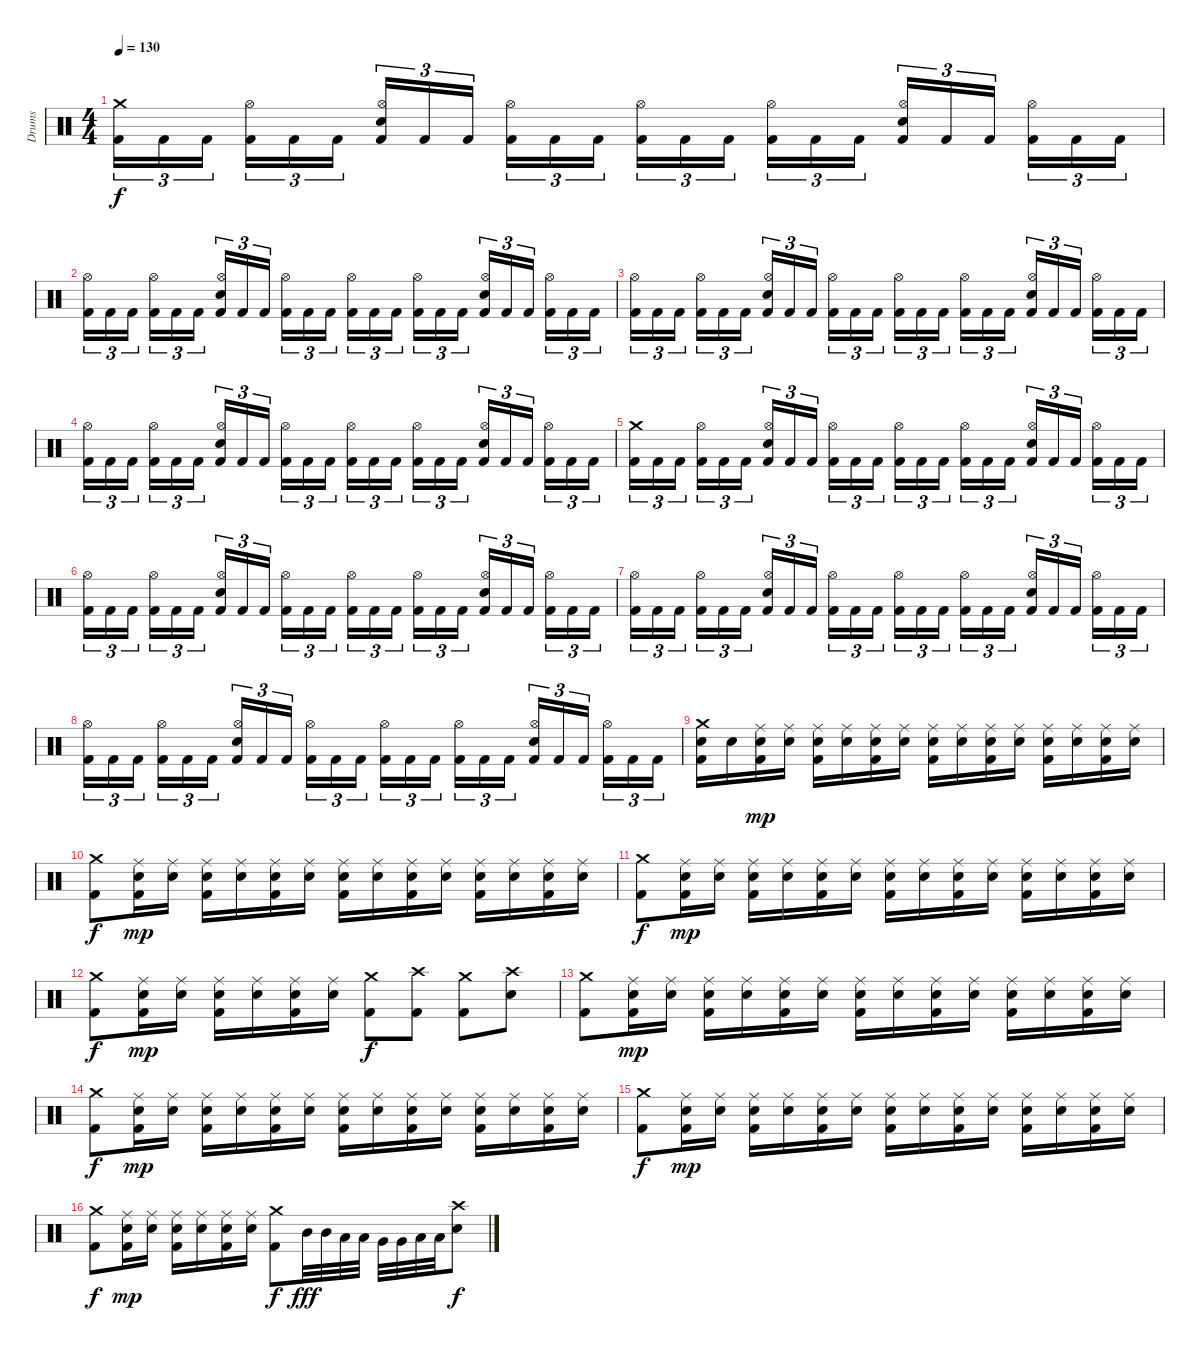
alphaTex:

\track ("Drums" "Drums") {instrument percussion}
\staff {score}
\articulation defaults
\ts (4 4)
\tempo 130
\clef neutral
\ks c
("Kick (hit) 2" "Crash medium (hit)").16{tu (3 2) dy f} "Kick (hit) 2".16{tu (3 2)} "Kick (hit) 2".16{tu (3 2) beam splitsecondary} ("Kick (hit) 2" "Hi-Hat (open)").16{tu (3 2)} "Kick (hit) 2".16{tu (3 2)} "Kick (hit) 2".16{tu (3 2)} ("Kick (hit) 2" "Electric Snare (hit)" "Hi-Hat (open)").16{tu (3 2)} "Kick (hit) 2".16{tu (3 2)} "Kick (hit) 2".16{tu (3 2) beam splitsecondary} ("Kick (hit) 2" "Hi-Hat (open)").16{tu (3 2)} "Kick (hit) 2".16{tu (3 2)} "Kick (hit) 2".16{tu (3 2)} ("Kick (hit) 2" "Hi-Hat (open)").16{tu (3 2)} "Kick (hit) 2".16{tu (3 2)} "Kick (hit) 2".16{tu (3 2) beam splitsecondary} ("Kick (hit) 2" "Hi-Hat (open)").16{tu (3 2)} "Kick (hit) 2".16{tu (3 2)} "Kick (hit) 2".16{tu (3 2)} ("Kick (hit) 2" "Electric Snare (hit)" "Hi-Hat (open)").16{tu (3 2)} "Kick (hit) 2".16{tu (3 2)} "Kick (hit) 2".16{tu (3 2) beam splitsecondary} ("Kick (hit) 2" "Hi-Hat (open)").16{tu (3 2)} "Kick (hit) 2".16{tu (3 2)} "Kick (hit) 2".16{tu (3 2)} |
("Kick (hit) 2" "Hi-Hat (open)").16{tu (3 2)} "Kick (hit) 2".16{tu (3 2)} "Kick (hit) 2".16{tu (3 2) beam splitsecondary} ("Kick (hit) 2" "Hi-Hat (open)").16{tu (3 2)} "Kick (hit) 2".16{tu (3 2)} "Kick (hit) 2".16{tu (3 2)} ("Kick (hit) 2" "Electric Snare (hit)" "Hi-Hat (open)").16{tu (3 2)} "Kick (hit) 2".16{tu (3 2)} "Kick (hit) 2".16{tu (3 2) beam splitsecondary} ("Kick (hit) 2" "Hi-Hat (open)").16{tu (3 2)} "Kick (hit) 2".16{tu (3 2)} "Kick (hit) 2".16{tu (3 2)} ("Kick (hit) 2" "Hi-Hat (open)").16{tu (3 2)} "Kick (hit) 2".16{tu (3 2)} "Kick (hit) 2".16{tu (3 2) beam splitsecondary} ("Kick (hit) 2" "Hi-Hat (open)").16{tu (3 2)} "Kick (hit) 2".16{tu (3 2)} "Kick (hit) 2".16{tu (3 2)} ("Kick (hit) 2" "Electric Snare (hit)" "Hi-Hat (open)").16{tu (3 2)} "Kick (hit) 2".16{tu (3 2)} "Kick (hit) 2".16{tu (3 2) beam splitsecondary} ("Kick (hit) 2" "Hi-Hat (open)").16{tu (3 2)} "Kick (hit) 2".16{tu (3 2)} "Kick (hit) 2".16{tu (3 2)} |
("Kick (hit) 2" "Hi-Hat (open)").16{tu (3 2)} "Kick (hit) 2".16{tu (3 2)} "Kick (hit) 2".16{tu (3 2) beam splitsecondary} ("Kick (hit) 2" "Hi-Hat (open)").16{tu (3 2)} "Kick (hit) 2".16{tu (3 2)} "Kick (hit) 2".16{tu (3 2)} ("Kick (hit) 2" "Electric Snare (hit)" "Hi-Hat (open)").16{tu (3 2)} "Kick (hit) 2".16{tu (3 2)} "Kick (hit) 2".16{tu (3 2) beam splitsecondary} ("Kick (hit) 2" "Hi-Hat (open)").16{tu (3 2)} "Kick (hit) 2".16{tu (3 2)} "Kick (hit) 2".16{tu (3 2)} ("Kick (hit) 2" "Hi-Hat (open)").16{tu (3 2)} "Kick (hit) 2".16{tu (3 2)} "Kick (hit) 2".16{tu (3 2) beam splitsecondary} ("Kick (hit) 2" "Hi-Hat (open)").16{tu (3 2)} "Kick (hit) 2".16{tu (3 2)} "Kick (hit) 2".16{tu (3 2)} ("Kick (hit) 2" "Electric Snare (hit)" "Hi-Hat (open)").16{tu (3 2)} "Kick (hit) 2".16{tu (3 2)} "Kick (hit) 2".16{tu (3 2) beam splitsecondary} ("Kick (hit) 2" "Hi-Hat (open)").16{tu (3 2)} "Kick (hit) 2".16{tu (3 2)} "Kick (hit) 2".16{tu (3 2)} |
("Kick (hit) 2" "Hi-Hat (open)").16{tu (3 2)} "Kick (hit) 2".16{tu (3 2)} "Kick (hit) 2".16{tu (3 2) beam splitsecondary} ("Kick (hit) 2" "Hi-Hat (open)").16{tu (3 2)} "Kick (hit) 2".16{tu (3 2)} "Kick (hit) 2".16{tu (3 2)} ("Kick (hit) 2" "Electric Snare (hit)" "Hi-Hat (open)").16{tu (3 2)} "Kick (hit) 2".16{tu (3 2)} "Kick (hit) 2".16{tu (3 2) beam splitsecondary} ("Kick (hit) 2" "Hi-Hat (open)").16{tu (3 2)} "Kick (hit) 2".16{tu (3 2)} "Kick (hit) 2".16{tu (3 2)} ("Kick (hit) 2" "Hi-Hat (open)").16{tu (3 2)} "Kick (hit) 2".16{tu (3 2)} "Kick (hit) 2".16{tu (3 2) beam splitsecondary} ("Kick (hit) 2" "Hi-Hat (open)").16{tu (3 2)} "Kick (hit) 2".16{tu (3 2)} "Kick (hit) 2".16{tu (3 2)} ("Kick (hit) 2" "Electric Snare (hit)" "Hi-Hat (open)").16{tu (3 2)} "Kick (hit) 2".16{tu (3 2)} "Kick (hit) 2".16{tu (3 2) beam splitsecondary} ("Kick (hit) 2" "Hi-Hat (open)").16{tu (3 2)} "Kick (hit) 2".16{tu (3 2)} "Kick (hit) 2".16{tu (3 2)} |
("Kick (hit) 2" "Crash medium (hit)").16{tu (3 2)} "Kick (hit) 2".16{tu (3 2)} "Kick (hit) 2".16{tu (3 2) beam splitsecondary} ("Kick (hit) 2" "Hi-Hat (open)").16{tu (3 2)} "Kick (hit) 2".16{tu (3 2)} "Kick (hit) 2".16{tu (3 2)} ("Kick (hit) 2" "Electric Snare (hit)" "Hi-Hat (open)").16{tu (3 2)} "Kick (hit) 2".16{tu (3 2)} "Kick (hit) 2".16{tu (3 2) beam splitsecondary} ("Kick (hit) 2" "Hi-Hat (open)").16{tu (3 2)} "Kick (hit) 2".16{tu (3 2)} "Kick (hit) 2".16{tu (3 2)} ("Kick (hit) 2" "Hi-Hat (open)").16{tu (3 2)} "Kick (hit) 2".16{tu (3 2)} "Kick (hit) 2".16{tu (3 2) beam splitsecondary} ("Kick (hit) 2" "Hi-Hat (open)").16{tu (3 2)} "Kick (hit) 2".16{tu (3 2)} "Kick (hit) 2".16{tu (3 2)} ("Kick (hit) 2" "Electric Snare (hit)" "Hi-Hat (open)").16{tu (3 2)} "Kick (hit) 2".16{tu (3 2)} "Kick (hit) 2".16{tu (3 2) beam splitsecondary} ("Kick (hit) 2" "Hi-Hat (open)").16{tu (3 2)} "Kick (hit) 2".16{tu (3 2)} "Kick (hit) 2".16{tu (3 2)} |
("Kick (hit) 2" "Hi-Hat (open)").16{tu (3 2)} "Kick (hit) 2".16{tu (3 2)} "Kick (hit) 2".16{tu (3 2) beam splitsecondary} ("Kick (hit) 2" "Hi-Hat (open)").16{tu (3 2)} "Kick (hit) 2".16{tu (3 2)} "Kick (hit) 2".16{tu (3 2)} ("Kick (hit) 2" "Electric Snare (hit)" "Hi-Hat (open)").16{tu (3 2)} "Kick (hit) 2".16{tu (3 2)} "Kick (hit) 2".16{tu (3 2) beam splitsecondary} ("Kick (hit) 2" "Hi-Hat (open)").16{tu (3 2)} "Kick (hit) 2".16{tu (3 2)} "Kick (hit) 2".16{tu (3 2)} ("Kick (hit) 2" "Hi-Hat (open)").16{tu (3 2)} "Kick (hit) 2".16{tu (3 2)} "Kick (hit) 2".16{tu (3 2) beam splitsecondary} ("Kick (hit) 2" "Hi-Hat (open)").16{tu (3 2)} "Kick (hit) 2".16{tu (3 2)} "Kick (hit) 2".16{tu (3 2)} ("Kick (hit) 2" "Electric Snare (hit)" "Hi-Hat (open)").16{tu (3 2)} "Kick (hit) 2".16{tu (3 2)} "Kick (hit) 2".16{tu (3 2) beam splitsecondary} ("Kick (hit) 2" "Hi-Hat (open)").16{tu (3 2)} "Kick (hit) 2".16{tu (3 2)} "Kick (hit) 2".16{tu (3 2)} |
("Kick (hit) 2" "Hi-Hat (open)").16{tu (3 2)} "Kick (hit) 2".16{tu (3 2)} "Kick (hit) 2".16{tu (3 2) beam splitsecondary} ("Kick (hit) 2" "Hi-Hat (open)").16{tu (3 2)} "Kick (hit) 2".16{tu (3 2)} "Kick (hit) 2".16{tu (3 2)} ("Kick (hit) 2" "Electric Snare (hit)" "Hi-Hat (open)").16{tu (3 2)} "Kick (hit) 2".16{tu (3 2)} "Kick (hit) 2".16{tu (3 2) beam splitsecondary} ("Kick (hit) 2" "Hi-Hat (open)").16{tu (3 2)} "Kick (hit) 2".16{tu (3 2)} "Kick (hit) 2".16{tu (3 2)} ("Kick (hit) 2" "Hi-Hat (open)").16{tu (3 2)} "Kick (hit) 2".16{tu (3 2)} "Kick (hit) 2".16{tu (3 2) beam splitsecondary} ("Kick (hit) 2" "Hi-Hat (open)").16{tu (3 2)} "Kick (hit) 2".16{tu (3 2)} "Kick (hit) 2".16{tu (3 2)} ("Kick (hit) 2" "Electric Snare (hit)" "Hi-Hat (open)").16{tu (3 2)} "Kick (hit) 2".16{tu (3 2)} "Kick (hit) 2".16{tu (3 2) beam splitsecondary} ("Kick (hit) 2" "Hi-Hat (open)").16{tu (3 2)} "Kick (hit) 2".16{tu (3 2)} "Kick (hit) 2".16{tu (3 2)} |
("Kick (hit) 2" "Hi-Hat (open)").16{tu (3 2)} "Kick (hit) 2".16{tu (3 2)} "Kick (hit) 2".16{tu (3 2) beam splitsecondary} ("Kick (hit) 2" "Hi-Hat (open)").16{tu (3 2)} "Kick (hit) 2".16{tu (3 2)} "Kick (hit) 2".16{tu (3 2)} ("Kick (hit) 2" "Electric Snare (hit)" "Hi-Hat (open)").16{tu (3 2)} "Kick (hit) 2".16{tu (3 2)} "Kick (hit) 2".16{tu (3 2) beam splitsecondary} ("Kick (hit) 2" "Hi-Hat (open)").16{tu (3 2)} "Kick (hit) 2".16{tu (3 2)} "Kick (hit) 2".16{tu (3 2)} ("Kick (hit) 2" "Hi-Hat (open)").16{tu (3 2)} "Kick (hit) 2".16{tu (3 2)} "Kick (hit) 2".16{tu (3 2) beam splitsecondary} ("Kick (hit) 2" "Hi-Hat (open)").16{tu (3 2)} "Kick (hit) 2".16{tu (3 2)} "Kick (hit) 2".16{tu (3 2)} ("Kick (hit) 2" "Electric Snare (hit)" "Hi-Hat (open)").16{tu (3 2)} "Kick (hit) 2".16{tu (3 2)} "Kick (hit) 2".16{tu (3 2) beam splitsecondary} ("Kick (hit) 2" "Hi-Hat (open)").16{tu (3 2)} "Kick (hit) 2".16{tu (3 2)} "Kick (hit) 2".16{tu (3 2)} |
("Kick (hit) 2" "Electric Snare (hit)" "Crash medium (hit)").16 "Electric Snare (hit)".16 ("Kick (hit) 2" "Electric Snare (hit)" "Ride (middle)").16{dy mp} ("Electric Snare (hit)" "Ride (middle)").16 ("Kick (hit) 2" "Electric Snare (hit)" "Ride (middle)").16 ("Electric Snare (hit)" "Ride (middle)").16 ("Kick (hit) 2" "Electric Snare (hit)" "Ride (middle)").16 ("Electric Snare (hit)" "Ride (middle)").16 ("Kick (hit) 2" "Electric Snare (hit)" "Ride (middle)").16 ("Electric Snare (hit)" "Ride (middle)").16 ("Kick (hit) 2" "Electric Snare (hit)" "Ride (middle)").16 ("Electric Snare (hit)" "Ride (middle)").16 ("Kick (hit) 2" "Electric Snare (hit)" "Ride (middle)").16 ("Electric Snare (hit)" "Ride (middle)").16 ("Kick (hit) 2" "Electric Snare (hit)" "Ride (middle)").16 ("Electric Snare (hit)" "Ride (middle)").16 |
("Kick (hit) 2" "Crash medium (hit)").8{dy f} ("Kick (hit) 2" "Electric Snare (hit)" "Ride (middle)").16{dy mp} ("Electric Snare (hit)" "Ride (middle)").16 ("Kick (hit) 2" "Electric Snare (hit)" "Ride (middle)").16 ("Electric Snare (hit)" "Ride (middle)").16 ("Kick (hit) 2" "Electric Snare (hit)" "Ride (middle)").16 ("Electric Snare (hit)" "Ride (middle)").16 ("Kick (hit) 2" "Electric Snare (hit)" "Ride (middle)").16 ("Electric Snare (hit)" "Ride (middle)").16 ("Kick (hit) 2" "Electric Snare (hit)" "Ride (middle)").16 ("Electric Snare (hit)" "Ride (middle)").16 ("Kick (hit) 2" "Electric Snare (hit)" "Ride (middle)").16 ("Electric Snare (hit)" "Ride (middle)").16 ("Kick (hit) 2" "Electric Snare (hit)" "Ride (middle)").16 ("Electric Snare (hit)" "Ride (middle)").16 |
("Kick (hit) 2" "Crash medium (hit)").8{dy f} ("Kick (hit) 2" "Electric Snare (hit)" "Ride (middle)").16{dy mp} ("Electric Snare (hit)" "Ride (middle)").16 ("Kick (hit) 2" "Electric Snare (hit)" "Ride (middle)").16 ("Electric Snare (hit)" "Ride (middle)").16 ("Kick (hit) 2" "Electric Snare (hit)" "Ride (middle)").16 ("Electric Snare (hit)" "Ride (middle)").16 ("Kick (hit) 2" "Electric Snare (hit)" "Ride (middle)").16 ("Electric Snare (hit)" "Ride (middle)").16 ("Kick (hit) 2" "Electric Snare (hit)" "Ride (middle)").16 ("Electric Snare (hit)" "Ride (middle)").16 ("Kick (hit) 2" "Electric Snare (hit)" "Ride (middle)").16 ("Electric Snare (hit)" "Ride (middle)").16 ("Kick (hit) 2" "Electric Snare (hit)" "Ride (middle)").16 ("Electric Snare (hit)" "Ride (middle)").16 |
("Kick (hit) 2" "Crash medium (hit)").8{dy f} ("Kick (hit) 2" "Electric Snare (hit)" "Ride (middle)").16{dy mp} ("Electric Snare (hit)" "Ride (middle)").16 ("Kick (hit) 2" "Electric Snare (hit)" "Ride (middle)").16 ("Electric Snare (hit)" "Ride (middle)").16 ("Kick (hit) 2" "Electric Snare (hit)" "Ride (middle)").16 ("Electric Snare (hit)" "Ride (middle)").16 ("Kick (hit) 2" "Crash medium (hit)").8{dy f} ("Kick (hit) 2" "Crash high (hit)").8 ("Kick (hit) 2" "Crash medium (hit)").8 ("Electric Snare (hit)" "Crash high (hit)").8 |
("Kick (hit) 2" "Crash medium (hit)").8 ("Kick (hit) 2" "Electric Snare (hit)" "Ride (middle)").16{dy mp} ("Electric Snare (hit)" "Ride (middle)").16 ("Kick (hit) 2" "Electric Snare (hit)" "Ride (middle)").16 ("Electric Snare (hit)" "Ride (middle)").16 ("Kick (hit) 2" "Electric Snare (hit)" "Ride (middle)").16 ("Electric Snare (hit)" "Ride (middle)").16 ("Kick (hit) 2" "Electric Snare (hit)" "Ride (middle)").16 ("Electric Snare (hit)" "Ride (middle)").16 ("Kick (hit) 2" "Electric Snare (hit)" "Ride (middle)").16 ("Electric Snare (hit)" "Ride (middle)").16 ("Kick (hit) 2" "Electric Snare (hit)" "Ride (middle)").16 ("Electric Snare (hit)" "Ride (middle)").16 ("Kick (hit) 2" "Electric Snare (hit)" "Ride (middle)").16 ("Electric Snare (hit)" "Ride (middle)").16 |
("Kick (hit) 2" "Crash medium (hit)").8{dy f} ("Kick (hit) 2" "Electric Snare (hit)" "Ride (middle)").16{dy mp} ("Electric Snare (hit)" "Ride (middle)").16 ("Kick (hit) 2" "Electric Snare (hit)" "Ride (middle)").16 ("Electric Snare (hit)" "Ride (middle)").16 ("Kick (hit) 2" "Electric Snare (hit)" "Ride (middle)").16 ("Electric Snare (hit)" "Ride (middle)").16 ("Kick (hit) 2" "Electric Snare (hit)" "Ride (middle)").16 ("Electric Snare (hit)" "Ride (middle)").16 ("Kick (hit) 2" "Electric Snare (hit)" "Ride (middle)").16 ("Electric Snare (hit)" "Ride (middle)").16 ("Kick (hit) 2" "Electric Snare (hit)" "Ride (middle)").16 ("Electric Snare (hit)" "Ride (middle)").16 ("Kick (hit) 2" "Electric Snare (hit)" "Ride (middle)").16 ("Electric Snare (hit)" "Ride (middle)").16 |
("Kick (hit) 2" "Crash medium (hit)").8{dy f} ("Kick (hit) 2" "Electric Snare (hit)" "Ride (middle)").16{dy mp} ("Electric Snare (hit)" "Ride (middle)").16 ("Kick (hit) 2" "Electric Snare (hit)" "Ride (middle)").16 ("Electric Snare (hit)" "Ride (middle)").16 ("Kick (hit) 2" "Electric Snare (hit)" "Ride (middle)").16 ("Electric Snare (hit)" "Ride (middle)").16 ("Kick (hit) 2" "Electric Snare (hit)" "Ride (middle)").16 ("Electric Snare (hit)" "Ride (middle)").16 ("Kick (hit) 2" "Electric Snare (hit)" "Ride (middle)").16 ("Electric Snare (hit)" "Ride (middle)").16 ("Kick (hit) 2" "Electric Snare (hit)" "Ride (middle)").16 ("Electric Snare (hit)" "Ride (middle)").16 ("Kick (hit) 2" "Electric Snare (hit)" "Ride (middle)").16 ("Electric Snare (hit)" "Ride (middle)").16 |
("Kick (hit) 2" "Crash medium (hit)").8{dy f} ("Kick (hit) 2" "Electric Snare (hit)" "Ride (middle)").16{dy mp} ("Electric Snare (hit)" "Ride (middle)").16 ("Kick (hit) 2" "Electric Snare (hit)" "Ride (middle)").16 ("Electric Snare (hit)" "Ride (middle)").16 ("Kick (hit) 2" "Electric Snare (hit)" "Ride (middle)").16 ("Electric Snare (hit)" "Ride (middle)").16 ("Kick (hit) 2" "Crash medium (hit)").8{dy f} "Mid Tom (hit)".32{dy fff} "Mid Tom (hit)".32 "Low Tom (hit)".32 "Low Tom (hit)".32 "Very Low Tom (hit)".32 "Very Low Tom (hit)".32 "Low Floor Tom (hit)".32 "Low Floor Tom (hit)".32 ("Electric Snare (hit)" "Crash high (hit)").8{dy f}
